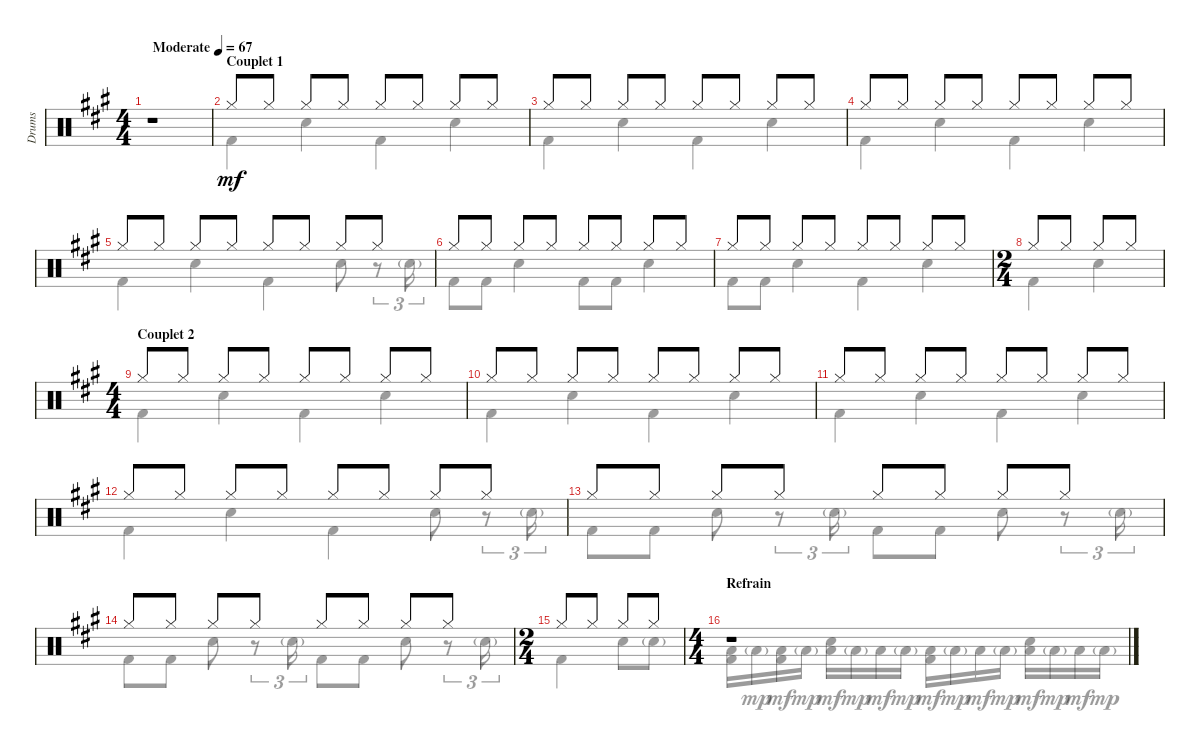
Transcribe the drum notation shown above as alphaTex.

\bracketExtendMode groupsimilarinstruments
\otherSystemsTrackNameOrientation horizontal
\track ("Drumkit" "Drums") {instrument percussion}
\staff {score}
\articulation defaults
\voice
\ts (4 4)
\beaming (8 2 2 2 2)
\tempo (67 "Moderate")
\clef neutral
\scale
0.472222
\ks a
r.1{dy mf} |
\section ("" "Couplet 1")
\scale
0.263889 "Hi-Hat (closed)"{acc forcenatural}.8 "Hi-Hat (closed)"{acc forcenatural}.8 "Hi-Hat (closed)"{acc forcenatural}.8 "Hi-Hat (closed)"{acc forcenatural}.8 "Hi-Hat (closed)"{acc forcenatural}.8 "Hi-Hat (closed)"{acc forcenatural}.8 "Hi-Hat (closed)"{acc forcenatural}.8 "Hi-Hat (closed)"{acc forcenatural}.8 |
\scale
0.263889 "Hi-Hat (closed)"{acc forcenatural}.8 "Hi-Hat (closed)"{acc forcenatural}.8 "Hi-Hat (closed)"{acc forcenatural}.8 "Hi-Hat (closed)"{acc forcenatural}.8 "Hi-Hat (closed)"{acc forcenatural}.8 "Hi-Hat (closed)"{acc forcenatural}.8 "Hi-Hat (closed)"{acc forcenatural}.8 "Hi-Hat (closed)"{acc forcenatural}.8 |
\scale
0.333333 "Hi-Hat (closed)"{acc forcenatural}.8 "Hi-Hat (closed)"{acc forcenatural}.8 "Hi-Hat (closed)"{acc forcenatural}.8 "Hi-Hat (closed)"{acc forcenatural}.8 "Hi-Hat (closed)"{acc forcenatural}.8 "Hi-Hat (closed)"{acc forcenatural}.8 "Hi-Hat (closed)"{acc forcenatural}.8 "Hi-Hat (closed)"{acc forcenatural}.8 |
\scale
0.333333 "Hi-Hat (closed)"{acc forcenatural}.8 "Hi-Hat (closed)"{acc forcenatural}.8 "Hi-Hat (closed)"{acc forcenatural}.8 "Hi-Hat (closed)"{acc forcenatural}.8 "Hi-Hat (closed)"{acc forcenatural}.8 "Hi-Hat (closed)"{acc forcenatural}.8 "Hi-Hat (closed)"{acc forcenatural}.8 "Hi-Hat (closed)"{acc forcenatural}.8 |
\scale
0.333333 "Hi-Hat (closed)"{acc forcenatural}.8 "Hi-Hat (closed)"{acc forcenatural}.8 "Hi-Hat (closed)"{acc forcenatural}.8 "Hi-Hat (closed)"{acc forcenatural}.8 "Hi-Hat (closed)"{acc forcenatural}.8 "Hi-Hat (closed)"{acc forcenatural}.8 "Hi-Hat (closed)"{acc forcenatural}.8 "Hi-Hat (closed)"{acc forcenatural}.8 |
\scale
0.218391 "Hi-Hat (closed)"{acc forcenatural}.8 "Hi-Hat (closed)"{acc forcenatural}.8 "Hi-Hat (closed)"{acc forcenatural}.8 "Hi-Hat (closed)"{acc forcenatural}.8 "Hi-Hat (closed)"{acc forcenatural}.8 "Hi-Hat (closed)"{acc forcenatural}.8 "Hi-Hat (closed)"{acc forcenatural}.8 "Hi-Hat (closed)"{acc forcenatural}.8 |
\ts (2 4)
\beaming (8 2 2)
\scale
0.390805 "Hi-Hat (closed)"{acc forcenatural}.8 "Hi-Hat (closed)"{acc forcenatural}.8 "Hi-Hat (closed)"{acc forcenatural}.8 "Hi-Hat (closed)"{acc forcenatural}.8 |
\ts (4 4)
\beaming (8 2 2 2 2)
\section ("" "Couplet 2")
\scale
0.390805 "Hi-Hat (closed)"{acc forcenatural}.8 "Hi-Hat (closed)"{acc forcenatural}.8 "Hi-Hat (closed)"{acc forcenatural}.8 "Hi-Hat (closed)"{acc forcenatural}.8 "Hi-Hat (closed)"{acc forcenatural}.8 "Hi-Hat (closed)"{acc forcenatural}.8 "Hi-Hat (closed)"{acc forcenatural}.8 "Hi-Hat (closed)"{acc forcenatural}.8 |
\scale
0.333333 "Hi-Hat (closed)"{acc forcenatural}.8 "Hi-Hat (closed)"{acc forcenatural}.8 "Hi-Hat (closed)"{acc forcenatural}.8 "Hi-Hat (closed)"{acc forcenatural}.8 "Hi-Hat (closed)"{acc forcenatural}.8 "Hi-Hat (closed)"{acc forcenatural}.8 "Hi-Hat (closed)"{acc forcenatural}.8 "Hi-Hat (closed)"{acc forcenatural}.8 |
\scale
0.333333 "Hi-Hat (closed)"{acc forcenatural}.8 "Hi-Hat (closed)"{acc forcenatural}.8 "Hi-Hat (closed)"{acc forcenatural}.8 "Hi-Hat (closed)"{acc forcenatural}.8 "Hi-Hat (closed)"{acc forcenatural}.8 "Hi-Hat (closed)"{acc forcenatural}.8 "Hi-Hat (closed)"{acc forcenatural}.8 "Hi-Hat (closed)"{acc forcenatural}.8 |
\scale
0.333333 "Hi-Hat (closed)"{acc forcenatural}.8 "Hi-Hat (closed)"{acc forcenatural}.8 "Hi-Hat (closed)"{acc forcenatural}.8 "Hi-Hat (closed)"{acc forcenatural}.8 "Hi-Hat (closed)"{acc forcenatural}.8 "Hi-Hat (closed)"{acc forcenatural}.8 "Hi-Hat (closed)"{acc forcenatural}.8 "Hi-Hat (closed)"{acc forcenatural}.8 |
\scale
0.263889 "Hi-Hat (closed)"{acc forcenatural}.8 "Hi-Hat (closed)"{acc forcenatural}.8 "Hi-Hat (closed)"{acc forcenatural}.8 "Hi-Hat (closed)"{acc forcenatural}.8 "Hi-Hat (closed)"{acc forcenatural}.8 "Hi-Hat (closed)"{acc forcenatural}.8 "Hi-Hat (closed)"{acc forcenatural}.8 "Hi-Hat (closed)"{acc forcenatural}.8 |
\scale
0.263889 "Hi-Hat (closed)"{acc forcenatural}.8 "Hi-Hat (closed)"{acc forcenatural}.8 "Hi-Hat (closed)"{acc forcenatural}.8 "Hi-Hat (closed)"{acc forcenatural}.8 "Hi-Hat (closed)"{acc forcenatural}.8 "Hi-Hat (closed)"{acc forcenatural}.8 "Hi-Hat (closed)"{acc forcenatural}.8 "Hi-Hat (closed)"{acc forcenatural}.8 |
\ts (2 4)
\beaming (8 2 2)
\scale
0.472222 "Hi-Hat (closed)"{acc forcenatural}.8 "Hi-Hat (closed)"{acc forcenatural}.8 "Hi-Hat (closed)"{acc forcenatural}.8 "Hi-Hat (closed)"{acc forcenatural}.8 |
\ts (4 4)
\beaming (8 2 2 2 2)
\section ("" "Refrain")
\scale
0.472222 r.1
\voice
\clef neutral
\ottava regular
\simile none
\scale
0.472222
\ks a
|
\scale
0.263889 "Kick (hit) 2"{acc forcenatural}.4 "Snare (hit) 2"{acc forcenatural}.4 "Kick (hit) 2"{acc forcenatural}.4 "Snare (hit) 2"{acc forcenatural}.4 |
\scale
0.263889 "Kick (hit) 2"{acc forcenatural}.4 "Snare (hit) 2"{acc forcenatural}.4 "Kick (hit) 2"{acc forcenatural}.4 "Snare (hit) 2"{acc forcenatural}.4 |
\scale
0.333333 "Kick (hit) 2"{acc forcenatural}.4 "Snare (hit) 2"{acc forcenatural}.4 "Kick (hit) 2"{acc forcenatural}.4 "Snare (hit) 2"{acc forcenatural}.4 |
\scale
0.333333 "Kick (hit) 2"{acc forcenatural}.4 "Snare (hit) 2"{acc forcenatural}.4 "Kick (hit) 2"{acc forcenatural}.4 "Snare (hit) 2"{acc forcenatural}.8 r.8{tu (3 2)} "Snare (hit) 2"{g acc forcenatural}.16{tu (3 2)} |
\scale
0.333333 "Kick (hit) 2"{acc forcenatural}.8 "Kick (hit) 2"{acc forcenatural}.8 "Snare (hit) 2"{acc forcenatural}.4 "Kick (hit) 2"{acc forcenatural}.8 "Kick (hit) 2"{acc forcenatural}.8 "Snare (hit) 2"{acc forcenatural}.4 |
\scale
0.218391 "Kick (hit) 2"{acc forcenatural}.8 "Kick (hit) 2"{acc forcenatural}.8 "Snare (hit) 2"{acc forcenatural}.4 "Kick (hit) 2"{acc forcenatural}.4 "Snare (hit) 2"{acc forcenatural}.4 |
\scale
0.390805 "Kick (hit) 2"{acc forcenatural}.4 "Snare (hit) 2"{acc forcenatural}.4 |
\scale
0.390805 "Kick (hit) 2"{acc forcenatural}.4 "Snare (hit) 2"{acc forcenatural}.4 "Kick (hit) 2"{acc forcenatural}.4 "Snare (hit) 2"{acc forcenatural}.4 |
\scale
0.333333 "Kick (hit) 2"{acc forcenatural}.4 "Snare (hit) 2"{acc forcenatural}.4 "Kick (hit) 2"{acc forcenatural}.4 "Snare (hit) 2"{acc forcenatural}.4 |
\scale
0.333333 "Kick (hit) 2"{acc forcenatural}.4 "Snare (hit) 2"{acc forcenatural}.4 "Kick (hit) 2"{acc forcenatural}.4 "Snare (hit) 2"{acc forcenatural}.4 |
\scale
0.333333 "Kick (hit) 2"{acc forcenatural}.4 "Snare (hit) 2"{acc forcenatural}.4 "Kick (hit) 2"{acc forcenatural}.4 "Snare (hit) 2"{acc forcenatural}.8 r.8{tu (3 2)} "Snare (hit) 2"{g acc forcenatural}.16{tu (3 2)} |
\scale
0.263889 "Kick (hit) 2"{acc forcenatural}.8 "Kick (hit) 2"{acc forcenatural}.8 "Snare (hit) 2"{acc forcenatural}.8 r.8{tu (3 2)} "Snare (hit) 2"{g acc forcenatural}.16{tu (3 2)} "Kick (hit) 2"{acc forcenatural}.8 "Kick (hit) 2"{acc forcenatural}.8 "Snare (hit) 2"{acc forcenatural}.8 r.8{tu (3 2)} "Snare (hit) 2"{g acc forcenatural}.16{tu (3 2)} |
\scale
0.263889 "Kick (hit) 2"{acc forcenatural}.8 "Kick (hit) 2"{acc forcenatural}.8 "Snare (hit) 2"{acc forcenatural}.8 r.8{tu (3 2)} "Snare (hit) 2"{g acc forcenatural}.16{tu (3 2)} "Kick (hit) 2"{acc forcenatural}.8 "Kick (hit) 2"{acc forcenatural}.8 "Snare (hit) 2"{acc forcenatural}.8 r.8{tu (3 2)} "Snare (hit) 2"{g acc forcenatural}.16{tu (3 2)} |
\scale
0.472222 "Kick (hit) 2"{acc forcenatural}.4 "Snare (hit) 2"{acc forcenatural}.8 "Snare (hit) 2"{g acc forcenatural}.8 |
\scale
0.472222 ("Kick (hit) 2"{acc forcenatural} "Low Tom (hit)"{acc forcenatural}).16 "Low Tom (hit)"{g acc forcenatural}.16{dy mp} ("Kick (hit) 2"{acc forcenatural} "Low Tom (hit)"{acc forcenatural}).16{dy mf} "Low Tom (hit)"{g acc forcenatural}.16{dy mp} ("Low Tom (hit)"{acc forcenatural} "Snare (hit) 2"{acc forcenatural}).16{dy mf} "Low Tom (hit)"{g acc forcenatural}.16{dy mp} "Low Tom (hit)"{acc forcenatural}.16{dy mf} "Low Tom (hit)"{g acc forcenatural}.16{dy mp} ("Kick (hit) 2"{acc forcenatural} "Low Tom (hit)"{acc forcenatural}).16{dy mf} "Low Tom (hit)"{g acc forcenatural}.16{dy mp} "Low Tom (hit)"{acc forcenatural}.16{dy mf} "Low Tom (hit)"{g acc forcenatural}.16{dy mp} ("Low Tom (hit)"{acc forcenatural} "Snare (hit) 2"{acc forcenatural}).16{dy mf} "Low Tom (hit)"{g acc forcenatural}.16{dy mp} "Low Tom (hit)"{acc forcenatural}.16{dy mf} "Low Tom (hit)"{g acc forcenatural}.16{dy mp}
